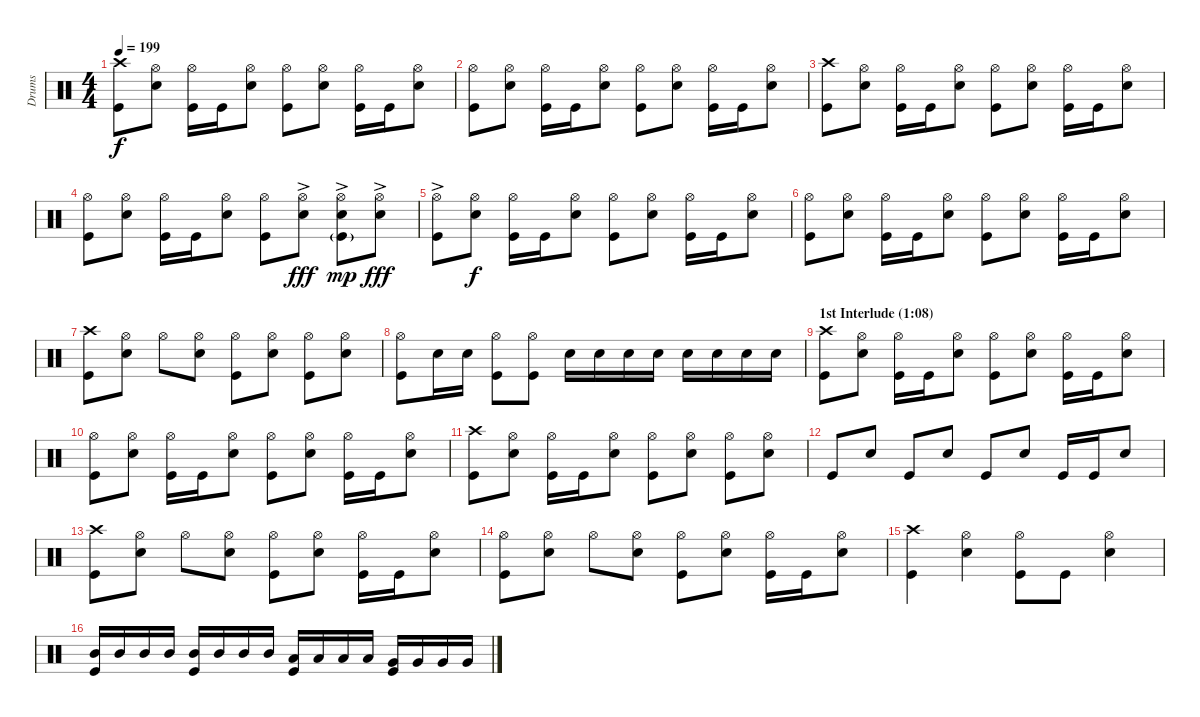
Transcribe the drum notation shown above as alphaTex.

\track ("Drums" "Drums") {instrument percussion}
\staff {score}
\articulation defaults
\ts (4 4)
\tempo 199
\clef neutral
\ks c
("Crash high (hit)" "Kick (hit)").8{dy f} ("Hi-Hat (open)" "Snare (hit) 2").8 ("Hi-Hat (open)" "Kick (hit)").16 "Kick (hit)".16 ("Hi-Hat (open)" "Snare (hit) 2").8 ("Hi-Hat (open)" "Kick (hit)").8 ("Hi-Hat (open)" "Snare (hit) 2").8 ("Hi-Hat (open)" "Kick (hit)").16 "Kick (hit)".16 ("Hi-Hat (open)" "Snare (hit) 2").8 |
("Hi-Hat (open)" "Kick (hit)").8 ("Hi-Hat (open)" "Snare (hit) 2").8 ("Hi-Hat (open)" "Kick (hit)").16 "Kick (hit)".16 ("Hi-Hat (open)" "Snare (hit) 2").8 ("Hi-Hat (open)" "Kick (hit)").8 ("Hi-Hat (open)" "Snare (hit) 2").8 ("Hi-Hat (open)" "Kick (hit)").16 "Kick (hit)".16 ("Hi-Hat (open)" "Snare (hit) 2").8 |
("Crash high (hit)" "Kick (hit)").8 ("Hi-Hat (open)" "Snare (hit) 2").8 ("Hi-Hat (open)" "Kick (hit)").16 "Kick (hit)".16 ("Hi-Hat (open)" "Snare (hit) 2").8 ("Hi-Hat (open)" "Kick (hit)").8 ("Hi-Hat (open)" "Snare (hit) 2").8 ("Hi-Hat (open)" "Kick (hit)").16 "Kick (hit)".16 ("Hi-Hat (open)" "Snare (hit) 2").8 |
("Hi-Hat (open)" "Kick (hit)").8 ("Hi-Hat (open)" "Snare (hit) 2").8 ("Hi-Hat (open)" "Kick (hit)").16 "Kick (hit)".16 ("Hi-Hat (open)" "Snare (hit) 2").8 ("Hi-Hat (open)" "Kick (hit)").8 ("Hi-Hat (open)"{ac} "Snare (hit) 2"{ac}).8{dy fff} ("Hi-Hat (open)"{ac} "Snare (hit) 2"{ac} "Kick (hit)"{g}).8{dy mp} ("Hi-Hat (open)"{ac} "Snare (hit) 2"{ac}).8{dy fff} |
("Hi-Hat (open)"{ac} "Kick (hit)").8 ("Hi-Hat (open)" "Snare (hit) 2").8{dy f} ("Hi-Hat (open)" "Kick (hit)").16 "Kick (hit)".16 ("Hi-Hat (open)" "Snare (hit) 2").8 ("Hi-Hat (open)" "Kick (hit)").8 ("Hi-Hat (open)" "Snare (hit) 2").8 ("Hi-Hat (open)" "Kick (hit)").16 "Kick (hit)".16 ("Hi-Hat (open)" "Snare (hit) 2").8 |
("Hi-Hat (open)" "Kick (hit)").8 ("Hi-Hat (open)" "Snare (hit) 2").8 ("Hi-Hat (open)" "Kick (hit)").16 "Kick (hit)".16 ("Hi-Hat (open)" "Snare (hit) 2").8 ("Hi-Hat (open)" "Kick (hit)").8 ("Hi-Hat (open)" "Snare (hit) 2").8 ("Hi-Hat (open)" "Kick (hit)").16 "Kick (hit)".16 ("Hi-Hat (open)" "Snare (hit) 2").8 |
("Crash high (hit)" "Kick (hit)").8 ("Hi-Hat (open)" "Snare (hit) 2").8 "Hi-Hat (open)".8 ("Hi-Hat (open)" "Snare (hit) 2").8 ("Hi-Hat (open)" "Kick (hit)").8 ("Hi-Hat (open)" "Snare (hit) 2").8 ("Hi-Hat (open)" "Kick (hit)").8 ("Hi-Hat (open)" "Snare (hit) 2").8 |
("Hi-Hat (open)" "Kick (hit)").8 "Snare (hit) 2".16 "Snare (hit) 2".16 ("Hi-Hat (open)" "Kick (hit)").8 ("Hi-Hat (open)" "Kick (hit)").8 "Snare (hit) 2".16 "Snare (hit) 2".16 "Snare (hit) 2".16 "Snare (hit) 2".16 "Snare (hit) 2".16 "Snare (hit) 2".16 "Snare (hit) 2".16 "Snare (hit) 2".16 |
\section ("" "1st Interlude (1:08)")
("Crash high (hit)" "Kick (hit)").8 ("Hi-Hat (open)" "Snare (hit) 2").8 ("Hi-Hat (open)" "Kick (hit)").16 "Kick (hit)".16 ("Hi-Hat (open)" "Snare (hit) 2").8 ("Hi-Hat (open)" "Kick (hit)").8 ("Hi-Hat (open)" "Snare (hit) 2").8 ("Hi-Hat (open)" "Kick (hit)").16 "Kick (hit)".16 ("Hi-Hat (open)" "Snare (hit) 2").8 |
("Hi-Hat (open)" "Kick (hit)").8 ("Hi-Hat (open)" "Snare (hit) 2").8 ("Hi-Hat (open)" "Kick (hit)").16 "Kick (hit)".16 ("Hi-Hat (open)" "Snare (hit) 2").8 ("Hi-Hat (open)" "Kick (hit)").8 ("Hi-Hat (open)" "Snare (hit) 2").8 ("Hi-Hat (open)" "Kick (hit)").16 "Kick (hit)".16 ("Hi-Hat (open)" "Snare (hit) 2").8 |
("Crash high (hit)" "Kick (hit)").8 ("Hi-Hat (open)" "Snare (hit) 2").8 ("Hi-Hat (open)" "Kick (hit)").16 "Kick (hit)".16 ("Hi-Hat (open)" "Snare (hit) 2").8 ("Hi-Hat (open)" "Kick (hit)").8 ("Hi-Hat (open)" "Snare (hit) 2").8 ("Hi-Hat (open)" "Kick (hit)").8 ("Hi-Hat (open)" "Snare (hit) 2").8 |
"Kick (hit)".8 "Snare (hit) 2".8 "Kick (hit)".8 "Snare (hit) 2".8 "Kick (hit)".8 "Snare (hit) 2".8 "Kick (hit)".16 "Kick (hit)".16 "Snare (hit) 2".8 |
("Crash high (hit)" "Kick (hit)").8 ("Hi-Hat (open)" "Snare (hit) 2").8 "Hi-Hat (open)".8 ("Hi-Hat (open)" "Snare (hit) 2").8 ("Hi-Hat (open)" "Kick (hit)").8 ("Hi-Hat (open)" "Snare (hit) 2").8 ("Hi-Hat (open)" "Kick (hit)").16 "Kick (hit)".16 ("Hi-Hat (open)" "Snare (hit) 2").8 |
("Hi-Hat (open)" "Kick (hit)").8 ("Hi-Hat (open)" "Snare (hit) 2").8 "Hi-Hat (open)".8 ("Hi-Hat (open)" "Snare (hit) 2").8 ("Hi-Hat (open)" "Kick (hit)").8 ("Hi-Hat (open)" "Snare (hit) 2").8 ("Hi-Hat (open)" "Kick (hit)").16 "Kick (hit)".16 ("Hi-Hat (open)" "Snare (hit) 2").8 |
("Crash high (hit)" "Kick (hit)").4 ("Hi-Hat (open)" "Snare (hit) 2").4 ("Hi-Hat (open)" "Kick (hit)").8 "Kick (hit)".8 ("Hi-Hat (open)" "Snare (hit) 2").4 |
("Mid Tom (hit)" "Kick (hit)").16 "Mid Tom (hit)".16 "Mid Tom (hit)".16 "Mid Tom (hit)".16 ("Mid Tom (hit)" "Kick (hit)").16 "Mid Tom (hit)".16 "Mid Tom (hit)".16 "Mid Tom (hit)".16 ("Low Tom (hit)" "Kick (hit)").16 "Low Tom (hit)".16 "Low Tom (hit)".16 "Low Tom (hit)".16 ("Very Low Tom (hit)" "Kick (hit)").16 "Very Low Tom (hit)".16 "Very Low Tom (hit)".16 "Very Low Tom (hit)".16
